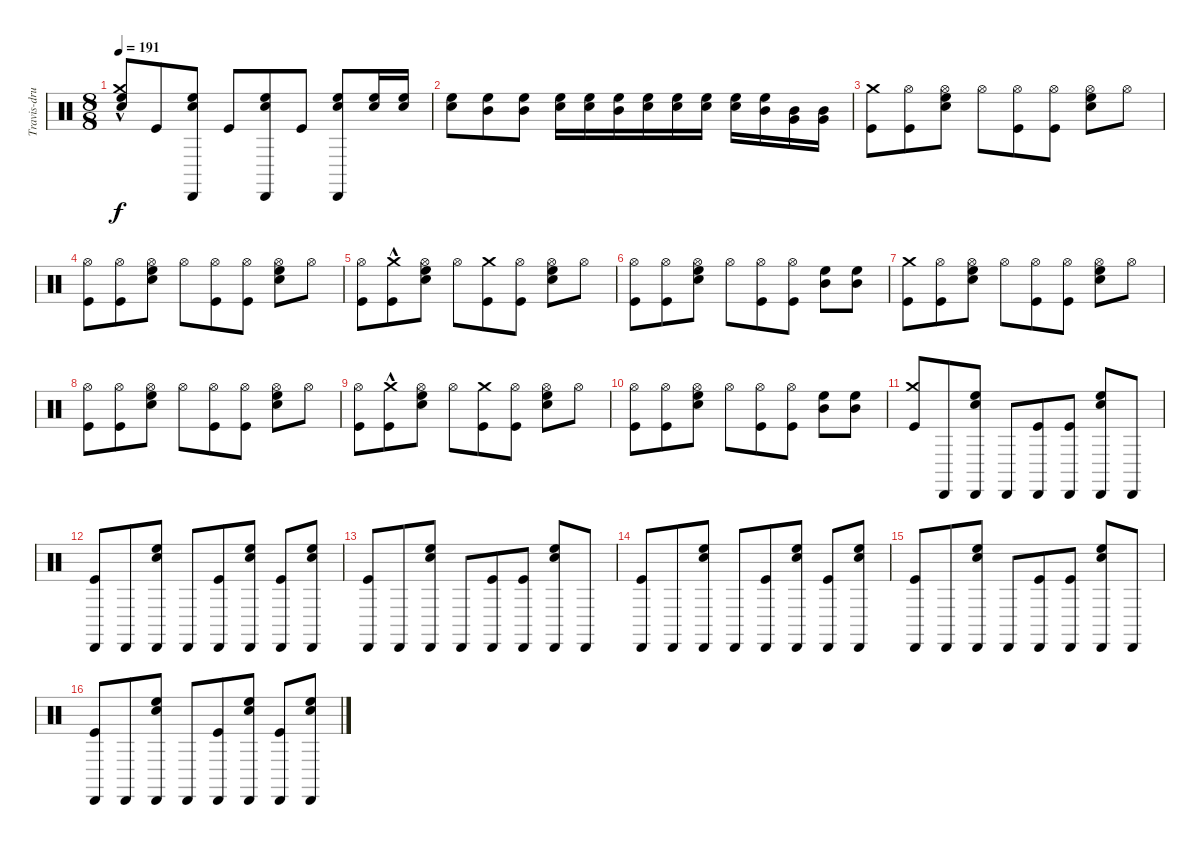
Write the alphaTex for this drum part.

\track ("Travis-drums" "Travis-dru") {instrument percussion}
\staff {score}
\articulation defaults
\ts (8 8)
\tempo 191
\clef neutral
\ks c
("High Floor Tom (hit)" "Crash medium (hit)"{hac} "Electric Snare (hit)").8{dy f} "Kick (hit)".8 ("High Floor Tom (hit)" "Cabasa (hit)" "Electric Snare (hit)").8 "Kick (hit)".8 ("High Floor Tom (hit)" "Cabasa (hit)" "Electric Snare (hit)").8 "Kick (hit)".8 ("High Floor Tom (hit)" "Cabasa (hit)" "Electric Snare (hit)").8 ("High Floor Tom (hit)" "Electric Snare (hit)").16 ("High Floor Tom (hit)" "Electric Snare (hit)").16 |
("High Floor Tom (hit)" "Electric Snare (hit)").8 ("Mid Tom (hit)" "High Floor Tom (hit)").8 ("Mid Tom (hit)" "High Floor Tom (hit)").8 ("High Floor Tom (hit)" "Electric Snare (hit)").16 ("High Floor Tom (hit)" "Electric Snare (hit)").16 ("Mid Tom (hit)" "High Floor Tom (hit)").16 ("Electric Snare (hit)" "High Floor Tom (hit)").16 ("High Floor Tom (hit)" "Electric Snare (hit)").16 ("High Floor Tom (hit)" "Electric Snare (hit)").16 ("Electric Snare (hit)" "High Floor Tom (hit)").16 ("Mid Tom (hit)" "High Floor Tom (hit)").16 ("Very Low Tom (hit)" "Mid Tom (hit)").16 ("Very Low Tom (hit)" "Mid Tom (hit)").16 |
("Crash medium (hit)" "Kick (hit)").8 ("Kick (hit)" "Hi-Hat (open)").8 ("High Floor Tom (hit)" "Snare (hit) 2" "Hi-Hat (open)").8 "Hi-Hat (open)".8 ("Kick (hit)" "Hi-Hat (open)").8 ("Kick (hit)" "Hi-Hat (open)").8 ("High Floor Tom (hit)" "Snare (hit) 2" "Hi-Hat (open)").8 "Hi-Hat (open)".8 |
("Kick (hit)" "Hi-Hat (open)").8 ("Kick (hit)" "Hi-Hat (open)").8 ("High Floor Tom (hit)" "Snare (hit) 2" "Hi-Hat (open)").8 "Hi-Hat (open)".8 ("Kick (hit)" "Hi-Hat (open)").8 ("Kick (hit)" "Hi-Hat (open)").8 ("High Floor Tom (hit)" "Snare (hit) 2" "Hi-Hat (open)").8 "Hi-Hat (open)".8 |
("Kick (hit)" "Hi-Hat (open)").8 ("Crash medium (hit)"{hac} "Kick (hit)").8 ("High Floor Tom (hit)" "Snare (hit) 2" "Hi-Hat (open)").8 "Hi-Hat (open)".8 ("Crash medium (hit)" "Kick (hit)").8 ("Kick (hit)" "Hi-Hat (open)").8 ("High Floor Tom (hit)" "Snare (hit) 2" "Hi-Hat (open)").8 "Hi-Hat (open)".8 |
("Kick (hit)" "Hi-Hat (open)").8 ("Kick (hit)" "Hi-Hat (open)").8 ("High Floor Tom (hit)" "Snare (hit) 2" "Hi-Hat (open)").8 "Hi-Hat (open)".8 ("Kick (hit)" "Hi-Hat (open)").8 ("Kick (hit)" "Hi-Hat (open)").8 ("Mid Tom (hit)" "High Floor Tom (hit)").8 ("High Floor Tom (hit)" "Mid Tom (hit)").8 |
("Crash medium (hit)" "Kick (hit)").8 ("Kick (hit)" "Hi-Hat (open)").8 ("High Floor Tom (hit)" "Snare (hit) 2" "Hi-Hat (open)").8 "Hi-Hat (open)".8 ("Kick (hit)" "Hi-Hat (open)").8 ("Kick (hit)" "Hi-Hat (open)").8 ("High Floor Tom (hit)" "Snare (hit) 2" "Hi-Hat (open)").8 "Hi-Hat (open)".8 |
("Kick (hit)" "Hi-Hat (open)").8 ("Kick (hit)" "Hi-Hat (open)").8 ("High Floor Tom (hit)" "Snare (hit) 2" "Hi-Hat (open)").8 "Hi-Hat (open)".8 ("Kick (hit)" "Hi-Hat (open)").8 ("Kick (hit)" "Hi-Hat (open)").8 ("High Floor Tom (hit)" "Snare (hit) 2" "Hi-Hat (open)").8 "Hi-Hat (open)".8 |
("Kick (hit)" "Hi-Hat (open)").8 ("Crash medium (hit)"{hac} "Kick (hit)").8 ("High Floor Tom (hit)" "Snare (hit) 2" "Hi-Hat (open)").8 "Hi-Hat (open)".8 ("Crash medium (hit)" "Kick (hit)").8 ("Kick (hit)" "Hi-Hat (open)").8 ("High Floor Tom (hit)" "Snare (hit) 2" "Hi-Hat (open)").8 "Hi-Hat (open)".8 |
("Kick (hit)" "Hi-Hat (open)").8 ("Kick (hit)" "Hi-Hat (open)").8 ("High Floor Tom (hit)" "Snare (hit) 2" "Hi-Hat (open)").8 "Hi-Hat (open)".8 ("Kick (hit)" "Hi-Hat (open)").8 ("Kick (hit)" "Hi-Hat (open)").8 ("Mid Tom (hit)" "High Floor Tom (hit)").8 ("High Floor Tom (hit)" "Mid Tom (hit)").8 |
("Crash medium (hit)" "Kick (hit)").8 "Cabasa (hit)".8 ("High Floor Tom (hit)" "Electric Snare (hit)" "Cabasa (hit)").8 "Cabasa (hit)".8 ("Cabasa (hit)" "Kick (hit)").8 ("Kick (hit)" "Cabasa (hit)").8 ("High Floor Tom (hit)" "Electric Snare (hit)" "Cabasa (hit)").8 "Cabasa (hit)".8 |
("Cabasa (hit)" "Kick (hit)").8 "Cabasa (hit)".8 ("High Floor Tom (hit)" "Electric Snare (hit)" "Cabasa (hit)").8 "Cabasa (hit)".8 ("Kick (hit)" "Cabasa (hit)").8 ("High Floor Tom (hit)" "Electric Snare (hit)" "Cabasa (hit)").8 ("Kick (hit)" "Cabasa (hit)").8 ("High Floor Tom (hit)" "Electric Snare (hit)" "Cabasa (hit)").8 |
("Cabasa (hit)" "Kick (hit)").8 "Cabasa (hit)".8 ("High Floor Tom (hit)" "Electric Snare (hit)" "Cabasa (hit)").8 "Cabasa (hit)".8 ("Cabasa (hit)" "Kick (hit)").8 ("Kick (hit)" "Cabasa (hit)").8 ("High Floor Tom (hit)" "Electric Snare (hit)" "Cabasa (hit)").8 "Cabasa (hit)".8 |
("Cabasa (hit)" "Kick (hit)").8 "Cabasa (hit)".8 ("High Floor Tom (hit)" "Electric Snare (hit)" "Cabasa (hit)").8 "Cabasa (hit)".8 ("Kick (hit)" "Cabasa (hit)").8 ("High Floor Tom (hit)" "Electric Snare (hit)" "Cabasa (hit)").8 ("Kick (hit)" "Cabasa (hit)").8 ("High Floor Tom (hit)" "Electric Snare (hit)" "Cabasa (hit)").8 |
("Cabasa (hit)" "Kick (hit)").8 "Cabasa (hit)".8 ("High Floor Tom (hit)" "Electric Snare (hit)" "Cabasa (hit)").8 "Cabasa (hit)".8 ("Cabasa (hit)" "Kick (hit)").8 ("Kick (hit)" "Cabasa (hit)").8 ("High Floor Tom (hit)" "Electric Snare (hit)" "Cabasa (hit)").8 "Cabasa (hit)".8 |
("Cabasa (hit)" "Kick (hit)").8 "Cabasa (hit)".8 ("High Floor Tom (hit)" "Electric Snare (hit)" "Cabasa (hit)").8 "Cabasa (hit)".8 ("Kick (hit)" "Cabasa (hit)").8 ("High Floor Tom (hit)" "Electric Snare (hit)" "Cabasa (hit)").8 ("Kick (hit)" "Cabasa (hit)").8 ("High Floor Tom (hit)" "Electric Snare (hit)" "Cabasa (hit)").8
